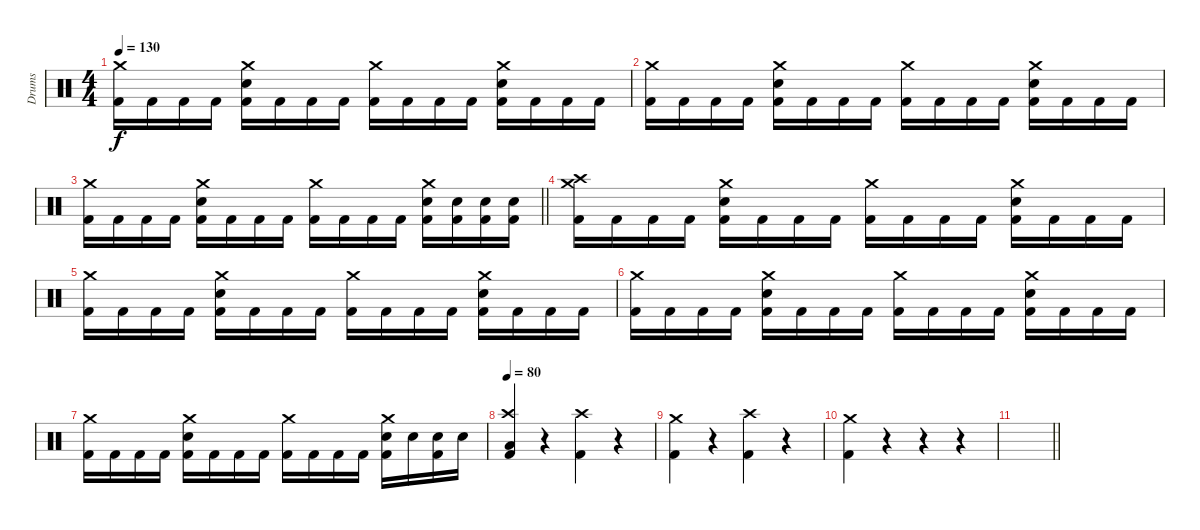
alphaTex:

\track ("Drums" "Drums") {instrument percussion}
\staff {score}
\articulation defaults
\ts (4 4)
\tempo 130
\clef neutral
\ks c
("Crash medium (hit)" "Kick (hit) 2").16{dy f} "Kick (hit) 2".16 "Kick (hit) 2".16 "Kick (hit) 2".16 ("Crash medium (hit)" "Snare (hit) 2" "Kick (hit) 2").16 "Kick (hit) 2".16 "Kick (hit) 2".16 "Kick (hit) 2".16 ("Crash medium (hit)" "Kick (hit) 2").16 "Kick (hit) 2".16 "Kick (hit) 2".16 "Kick (hit) 2".16 ("Crash medium (hit)" "Snare (hit) 2" "Kick (hit) 2").16 "Kick (hit) 2".16 "Kick (hit) 2".16 "Kick (hit) 2".16 |
("Crash medium (hit)" "Kick (hit) 2").16 "Kick (hit) 2".16 "Kick (hit) 2".16 "Kick (hit) 2".16 ("Crash medium (hit)" "Snare (hit) 2" "Kick (hit) 2").16 "Kick (hit) 2".16 "Kick (hit) 2".16 "Kick (hit) 2".16 ("Crash medium (hit)" "Kick (hit) 2").16 "Kick (hit) 2".16 "Kick (hit) 2".16 "Kick (hit) 2".16 ("Crash medium (hit)" "Snare (hit) 2" "Kick (hit) 2").16 "Kick (hit) 2".16 "Kick (hit) 2".16 "Kick (hit) 2".16 |
\barLineRight lightlight
("Crash medium (hit)" "Kick (hit) 2").16 "Kick (hit) 2".16 "Kick (hit) 2".16 "Kick (hit) 2".16 ("Crash medium (hit)" "Snare (hit) 2" "Kick (hit) 2").16 "Kick (hit) 2".16 "Kick (hit) 2".16 "Kick (hit) 2".16 ("Crash medium (hit)" "Kick (hit) 2").16 "Kick (hit) 2".16 "Kick (hit) 2".16 "Kick (hit) 2".16 ("Crash medium (hit)" "Snare (hit) 2" "Kick (hit) 2").16 ("Snare (hit) 2" "Kick (hit) 2").16 ("Snare (hit) 2" "Kick (hit) 2").16 ("Snare (hit) 2" "Kick (hit) 2").16 |
("Crash medium (hit)" "Crash high (hit)" "Kick (hit) 2").16 "Kick (hit) 2".16 "Kick (hit) 2".16 "Kick (hit) 2".16 ("Crash medium (hit)" "Snare (hit) 2" "Kick (hit) 2").16 "Kick (hit) 2".16 "Kick (hit) 2".16 "Kick (hit) 2".16 ("Crash medium (hit)" "Kick (hit) 2").16 "Kick (hit) 2".16 "Kick (hit) 2".16 "Kick (hit) 2".16 ("Crash medium (hit)" "Snare (hit) 2" "Kick (hit) 2").16 "Kick (hit) 2".16 "Kick (hit) 2".16 "Kick (hit) 2".16 |
("Crash medium (hit)" "Kick (hit) 2").16 "Kick (hit) 2".16 "Kick (hit) 2".16 "Kick (hit) 2".16 ("Crash medium (hit)" "Snare (hit) 2" "Kick (hit) 2").16 "Kick (hit) 2".16 "Kick (hit) 2".16 "Kick (hit) 2".16 ("Crash medium (hit)" "Kick (hit) 2").16 "Kick (hit) 2".16 "Kick (hit) 2".16 "Kick (hit) 2".16 ("Crash medium (hit)" "Snare (hit) 2" "Kick (hit) 2").16 "Kick (hit) 2".16 "Kick (hit) 2".16 "Kick (hit) 2".16 |
("Crash medium (hit)" "Kick (hit) 2").16 "Kick (hit) 2".16 "Kick (hit) 2".16 "Kick (hit) 2".16 ("Crash medium (hit)" "Snare (hit) 2" "Kick (hit) 2").16 "Kick (hit) 2".16 "Kick (hit) 2".16 "Kick (hit) 2".16 ("Crash medium (hit)" "Kick (hit) 2").16 "Kick (hit) 2".16 "Kick (hit) 2".16 "Kick (hit) 2".16 ("Crash medium (hit)" "Snare (hit) 2" "Kick (hit) 2").16 "Kick (hit) 2".16 "Kick (hit) 2".16 "Kick (hit) 2".16 |
("Crash medium (hit)" "Kick (hit) 2").16 "Kick (hit) 2".16 "Kick (hit) 2".16 "Kick (hit) 2".16 ("Crash medium (hit)" "Snare (hit) 2" "Kick (hit) 2").16 "Kick (hit) 2".16 "Kick (hit) 2".16 "Kick (hit) 2".16 ("Crash medium (hit)" "Kick (hit) 2").16 "Kick (hit) 2".16 "Kick (hit) 2".16 "Kick (hit) 2".16 ("Crash medium (hit)" "Snare (hit) 2" "Kick (hit) 2").16 "Snare (hit) 2".16 ("Snare (hit) 2" "Kick (hit) 2").16 "Snare (hit) 2".16 |
\tempo 80
("Crash high (hit)" "Low Floor Tom (hit)" "Kick (hit) 2").4 r.4 ("Crash high (hit)" "Kick (hit) 2").4 r.4 |
("Crash medium (hit)" "Kick (hit) 2").4 r.4 ("Crash high (hit)" "Kick (hit) 2").4 r.4 |
("Crash medium (hit)" "Kick (hit) 2").4 r.4 r.4 r.4 |
\barLineRight lightlight
